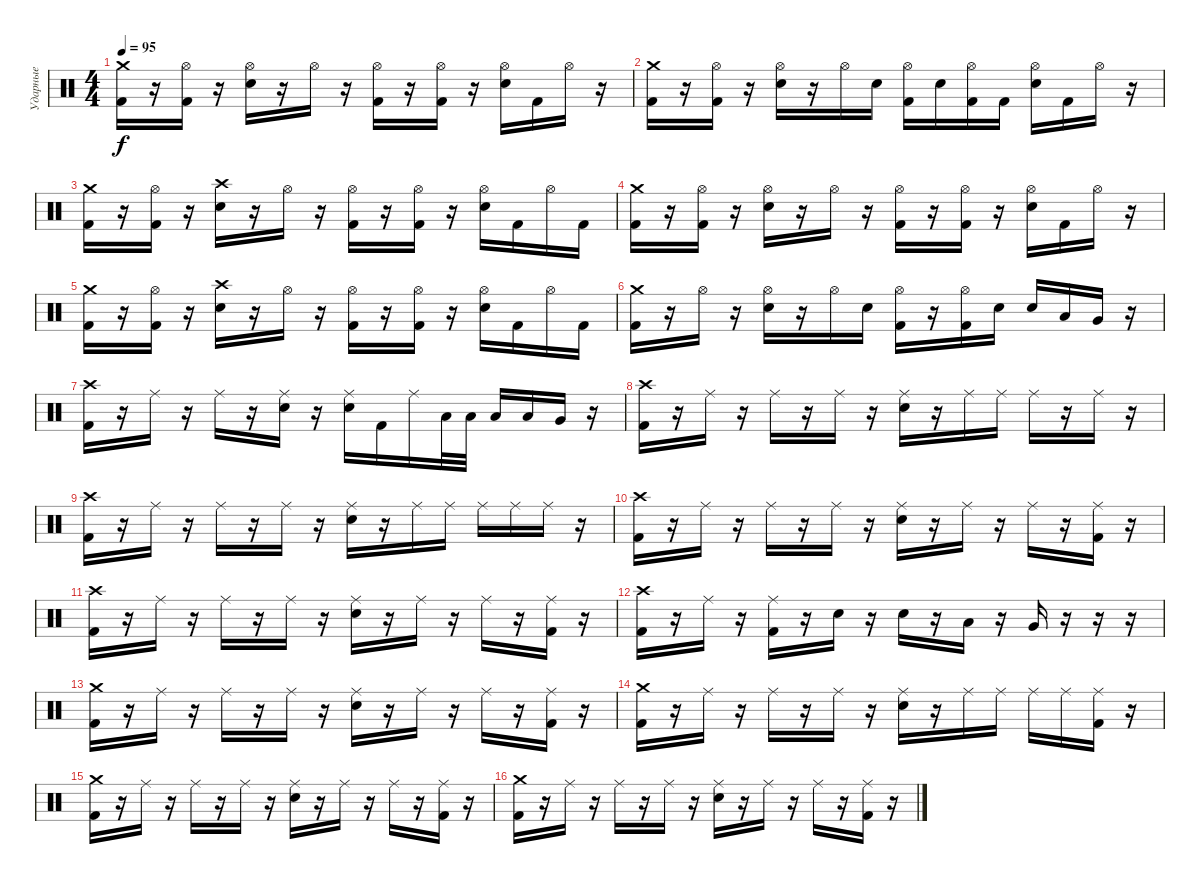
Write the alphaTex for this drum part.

\track ("Ударные" "Ударные") {instrument percussion}
\staff {score}
\articulation defaults
\ts (4 4)
\tempo 95
\clef neutral
\ks c
("Crash medium (hit)" "Kick (hit) 2").16{dy f} r.16 ("Hi-Hat (open)" "Kick (hit) 2").16 r.16 ("Hi-Hat (open)" "Electric Snare (hit)").16 r.16 "Hi-Hat (open)".16 r.16 ("Hi-Hat (open)" "Kick (hit) 2").16 r.16 ("Hi-Hat (open)" "Kick (hit) 2").16 r.16 ("Hi-Hat (open)" "Electric Snare (hit)").16 "Kick (hit) 2".16 "Hi-Hat (open)".16 r.16 |
("Crash medium (hit)" "Kick (hit) 2").16 r.16 ("Hi-Hat (open)" "Kick (hit) 2").16 r.16 ("Hi-Hat (open)" "Electric Snare (hit)").16 r.16 "Hi-Hat (open)".16 "Electric Snare (hit)".16 ("Hi-Hat (open)" "Kick (hit) 2").16 "Electric Snare (hit)".16 ("Hi-Hat (open)" "Kick (hit) 2").16 "Kick (hit) 2".16 ("Hi-Hat (open)" "Electric Snare (hit)").16 "Kick (hit) 2".16 "Hi-Hat (open)".16 r.16 |
("Crash medium (hit)" "Kick (hit) 2").16 r.16 ("Hi-Hat (open)" "Kick (hit) 2").16 r.16 ("Crash high (hit)" "Electric Snare (hit)").16 r.16 "Hi-Hat (open)".16 r.16 ("Hi-Hat (open)" "Kick (hit) 2").16 r.16 ("Hi-Hat (open)" "Kick (hit) 2").16 r.16 ("Hi-Hat (open)" "Electric Snare (hit)").16 "Kick (hit) 2".16 "Hi-Hat (open)".16 "Kick (hit) 2".16 |
("Crash medium (hit)" "Kick (hit) 2").16 r.16 ("Hi-Hat (open)" "Kick (hit) 2").16 r.16 ("Hi-Hat (open)" "Electric Snare (hit)").16 r.16 "Hi-Hat (open)".16 r.16 ("Hi-Hat (open)" "Kick (hit) 2").16 r.16 ("Hi-Hat (open)" "Kick (hit) 2").16 r.16 ("Hi-Hat (open)" "Electric Snare (hit)").16 "Kick (hit) 2".16 "Hi-Hat (open)".16 r.16 |
("Crash medium (hit)" "Kick (hit) 2").16 r.16 ("Hi-Hat (open)" "Kick (hit) 2").16 r.16 ("Crash high (hit)" "Electric Snare (hit)").16 r.16 "Hi-Hat (open)".16 r.16 ("Hi-Hat (open)" "Kick (hit) 2").16 r.16 ("Hi-Hat (open)" "Kick (hit) 2").16 r.16 ("Hi-Hat (open)" "Electric Snare (hit)").16 "Kick (hit) 2".16 "Hi-Hat (open)".16 "Kick (hit) 2".16 |
("Crash medium (hit)" "Kick (hit) 2").16 r.16 "Hi-Hat (open)".16 r.16 ("Hi-Hat (open)" "Electric Snare (hit)").16 r.16 "Hi-Hat (open)".16 "Electric Snare (hit)".16 ("Hi-Hat (open)" "Kick (hit) 2").16 r.16 ("Hi-Hat (open)" "Kick (hit) 2").16 "Electric Snare (hit)".16 "Electric Snare (hit)".16 "Low Tom (hit)".16 "Very Low Tom (hit)".16 r.16 |
("Crash high (hit)" "Kick (hit) 2").16 r.16 "Ride (middle)".16 r.16 "Ride (middle)".16 r.16 ("Ride (middle)" "Electric Snare (hit)").16 r.16 ("Ride (middle)" "Electric Snare (hit)").16 "Kick (hit) 2".16 "Ride (middle)".16 "Low Tom (hit)".32 "Low Tom (hit)".32 "Low Tom (hit)".16 "Low Tom (hit)".16 "Very Low Tom (hit)".16 r.16 |
("Crash high (hit)" "Kick (hit) 2").16 r.16 "Ride (middle)".16 r.16 "Ride (middle)".16 r.16 "Ride (middle)".16 r.16 ("Ride (middle)" "Electric Snare (hit)").16 r.16 "Ride (middle)".16 "Ride (middle)".16 "Ride (middle)".16 r.16 "Ride (middle)".16 r.16 |
("Crash high (hit)" "Kick (hit) 2").16 r.16 "Ride (middle)".16 r.16 "Ride (middle)".16 r.16 "Ride (middle)".16 r.16 ("Ride (middle)" "Electric Snare (hit)").16 r.16 "Ride (middle)".16 "Ride (middle)".16 "Ride (middle)".16 "Ride (middle)".16 "Ride (middle)".16 r.16 |
("Crash high (hit)" "Kick (hit) 2").16 r.16 "Ride (middle)".16 r.16 "Ride (middle)".16 r.16 "Ride (middle)".16 r.16 ("Ride (middle)" "Electric Snare (hit)").16 r.16 "Ride (middle)".16 r.16 "Ride (middle)".16 r.16 ("Ride (middle)" "Kick (hit) 2").16 r.16 |
("Crash high (hit)" "Kick (hit) 2").16 r.16 "Ride (middle)".16 r.16 "Ride (middle)".16 r.16 "Ride (middle)".16 r.16 ("Ride (middle)" "Electric Snare (hit)").16 r.16 "Ride (middle)".16 r.16 "Ride (middle)".16 r.16 ("Ride (middle)" "Kick (hit) 2").16 r.16 |
("Crash high (hit)" "Kick (hit) 2").16 r.16 "Ride (middle)".16 r.16 ("Ride (middle)" "Kick (hit) 2").16 r.16 "Electric Snare (hit)".16 r.16 "Electric Snare (hit)".16 r.16 "Low Tom (hit)".16 r.16 "Very Low Tom (hit)".16 r.16 r.16 r.16 |
("Crash medium (hit)" "Kick (hit) 2").16 r.16 "Ride (middle)".16 r.16 "Ride (middle)".16 r.16 "Ride (middle)".16 r.16 ("Ride (middle)" "Electric Snare (hit)").16 r.16 "Ride (middle)".16 r.16 "Ride (middle)".16 r.16 ("Ride (middle)" "Kick (hit) 2").16 r.16 |
("Crash medium (hit)" "Kick (hit) 2").16 r.16 "Ride (middle)".16 r.16 "Ride (middle)".16 r.16 "Ride (middle)".16 r.16 ("Ride (middle)" "Electric Snare (hit)").16 r.16 "Ride (middle)".16 "Ride (middle)".16 "Ride (middle)".16 "Ride (middle)".16 ("Ride (middle)" "Kick (hit) 2").16 r.16 |
("Crash medium (hit)" "Kick (hit) 2").16 r.16 "Ride (middle)".16 r.16 "Ride (middle)".16 r.16 "Ride (middle)".16 r.16 ("Ride (middle)" "Electric Snare (hit)").16 r.16 "Ride (middle)".16 r.16 "Ride (middle)".16 r.16 ("Ride (middle)" "Kick (hit) 2").16 r.16 |
("Crash medium (hit)" "Kick (hit) 2").16 r.16 "Ride (middle)".16 r.16 "Ride (middle)".16 r.16 "Ride (middle)".16 r.16 ("Ride (middle)" "Electric Snare (hit)").16 r.16 "Ride (middle)".16 r.16 "Ride (middle)".16 r.16 ("Ride (middle)" "Kick (hit) 2").16 r.16
